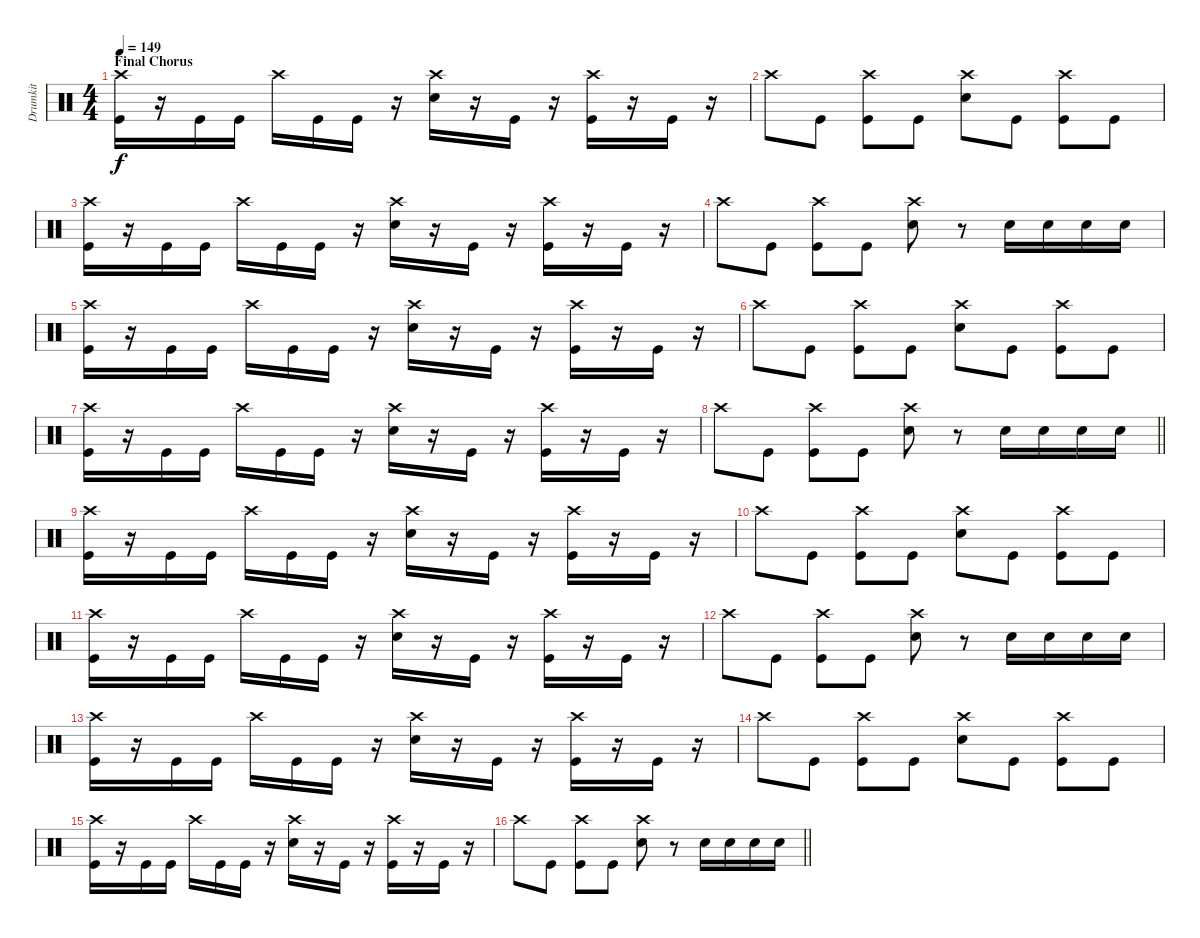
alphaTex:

\track ("Drumkit" "Drumkit") {instrument percussion}
\staff {score}
\articulation defaults
\ts (4 4)
\section ("" "Final Chorus")
\tempo 149
\clef neutral
\ks c
("Crash high (hit)" "Kick (hit)").16{dy f} r.16 "Kick (hit)".16 "Kick (hit)".16 "Crash high (hit)".16 "Kick (hit)".16 "Kick (hit)".16 r.16 ("Crash high (hit)" "Snare (hit) 2").16 r.16 "Kick (hit)".16 r.16 ("Crash high (hit)" "Kick (hit)").16 r.16 "Kick (hit)".16 r.16 |
"Crash high (hit)".8 "Kick (hit)".8 ("Crash high (hit)" "Kick (hit)").8 "Kick (hit)".8 ("Crash high (hit)" "Snare (hit) 2").8 "Kick (hit)".8 ("Crash high (hit)" "Kick (hit)").8 "Kick (hit)".8 |
("Crash high (hit)" "Kick (hit)").16 r.16 "Kick (hit)".16 "Kick (hit)".16 "Crash high (hit)".16 "Kick (hit)".16 "Kick (hit)".16 r.16 ("Crash high (hit)" "Snare (hit) 2").16 r.16 "Kick (hit)".16 r.16 ("Crash high (hit)" "Kick (hit)").16 r.16 "Kick (hit)".16 r.16 |
"Crash high (hit)".8 "Kick (hit)".8 ("Crash high (hit)" "Kick (hit)").8 "Kick (hit)".8 ("Crash high (hit)" "Snare (hit) 2").8 r.8 "Snare (hit) 2".16 "Snare (hit) 2".16 "Snare (hit) 2".16 "Snare (hit) 2".16 |
("Crash high (hit)" "Kick (hit)").16 r.16 "Kick (hit)".16 "Kick (hit)".16 "Crash high (hit)".16 "Kick (hit)".16 "Kick (hit)".16 r.16 ("Crash high (hit)" "Snare (hit) 2").16 r.16 "Kick (hit)".16 r.16 ("Crash high (hit)" "Kick (hit)").16 r.16 "Kick (hit)".16 r.16 |
"Crash high (hit)".8 "Kick (hit)".8 ("Crash high (hit)" "Kick (hit)").8 "Kick (hit)".8 ("Crash high (hit)" "Snare (hit) 2").8 "Kick (hit)".8 ("Crash high (hit)" "Kick (hit)").8 "Kick (hit)".8 |
("Crash high (hit)" "Kick (hit)").16 r.16 "Kick (hit)".16 "Kick (hit)".16 "Crash high (hit)".16 "Kick (hit)".16 "Kick (hit)".16 r.16 ("Crash high (hit)" "Snare (hit) 2").16 r.16 "Kick (hit)".16 r.16 ("Crash high (hit)" "Kick (hit)").16 r.16 "Kick (hit)".16 r.16 |
\barLineRight lightlight "Crash high (hit)".8 "Kick (hit)".8
("Crash high (hit)" "Kick (hit)").8 "Kick (hit)".8 ("Crash high (hit)" "Snare (hit) 2").8 r.8 "Snare (hit) 2".16 "Snare (hit) 2".16 "Snare (hit) 2".16 "Snare (hit) 2".16 |
("Crash high (hit)" "Kick (hit)").16 r.16 "Kick (hit)".16 "Kick (hit)".16 "Crash high (hit)".16 "Kick (hit)".16 "Kick (hit)".16 r.16 ("Crash high (hit)" "Snare (hit) 2").16 r.16 "Kick (hit)".16 r.16 ("Crash high (hit)" "Kick (hit)").16 r.16 "Kick (hit)".16 r.16 |
"Crash high (hit)".8 "Kick (hit)".8 ("Crash high (hit)" "Kick (hit)").8 "Kick (hit)".8 ("Crash high (hit)" "Snare (hit) 2").8 "Kick (hit)".8 ("Crash high (hit)" "Kick (hit)").8 "Kick (hit)".8 |
("Crash high (hit)" "Kick (hit)").16 r.16 "Kick (hit)".16 "Kick (hit)".16 "Crash high (hit)".16 "Kick (hit)".16 "Kick (hit)".16 r.16 ("Crash high (hit)" "Snare (hit) 2").16 r.16 "Kick (hit)".16 r.16 ("Crash high (hit)" "Kick (hit)").16 r.16 "Kick (hit)".16 r.16 |
"Crash high (hit)".8 "Kick (hit)".8 ("Crash high (hit)" "Kick (hit)").8 "Kick (hit)".8 ("Crash high (hit)" "Snare (hit) 2").8 r.8 "Snare (hit) 2".16 "Snare (hit) 2".16 "Snare (hit) 2".16 "Snare (hit) 2".16 |
("Crash high (hit)" "Kick (hit)").16 r.16 "Kick (hit)".16 "Kick (hit)".16 "Crash high (hit)".16 "Kick (hit)".16 "Kick (hit)".16 r.16 ("Crash high (hit)" "Snare (hit) 2").16 r.16 "Kick (hit)".16 r.16 ("Crash high (hit)" "Kick (hit)").16 r.16 "Kick (hit)".16 r.16 |
"Crash high (hit)".8 "Kick (hit)".8 ("Crash high (hit)" "Kick (hit)").8 "Kick (hit)".8 ("Crash high (hit)" "Snare (hit) 2").8 "Kick (hit)".8 ("Crash high (hit)" "Kick (hit)").8 "Kick (hit)".8 |
("Crash high (hit)" "Kick (hit)").16 r.16 "Kick (hit)".16 "Kick (hit)".16 "Crash high (hit)".16 "Kick (hit)".16 "Kick (hit)".16 r.16 ("Crash high (hit)" "Snare (hit) 2").16 r.16 "Kick (hit)".16 r.16 ("Crash high (hit)" "Kick (hit)").16 r.16 "Kick (hit)".16 r.16 |
\barLineRight lightlight "Crash high (hit)".8 "Kick (hit)".8
("Crash high (hit)" "Kick (hit)").8 "Kick (hit)".8 ("Crash high (hit)" "Snare (hit) 2").8 r.8 "Snare (hit) 2".16 "Snare (hit) 2".16 "Snare (hit) 2".16 "Snare (hit) 2".16
